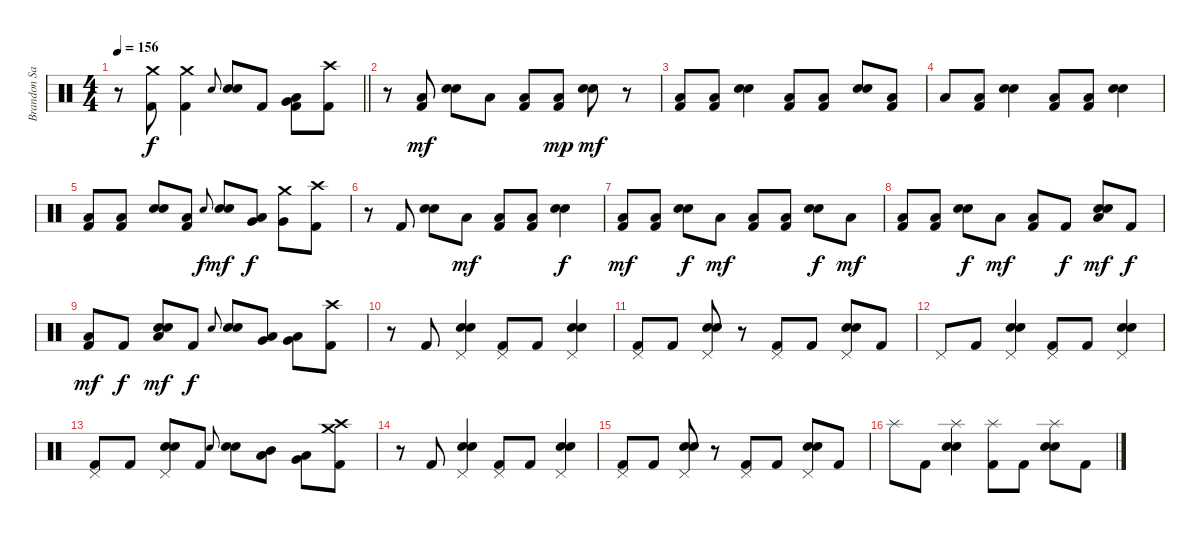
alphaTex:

\track ("Brandon Saller" "Brandon Sa") {instrument percussion}
\staff {score}
\articulation defaults
\ts (4 4)
\tempo 156
\clef neutral
\barLineRight lightlight
\ks c
r.8{dy f} ("Crash medium (hit)" "Kick (hit) 2").8 ("Crash medium (hit)" "Kick (hit) 2").4 "Electric Snare (hit)".8{gr onbeat} ("Snare (hit) 2" "Electric Snare (hit)").8 "Kick (hit) 2".8 ("Low Tom (hit)" "Very Low Tom (hit)" "Kick (hit) 2").8 ("Crash high (hit)" "Kick (hit) 2").8 |
\section ("" "")
r.8 ("Low Floor Tom (hit)" "Kick (hit) 2").8{dy mf} ("Snare (hit) 2" "Electric Snare (hit)").8 "Low Floor Tom (hit)".8 ("Low Floor Tom (hit)" "Kick (hit) 2").8 ("Low Floor Tom (hit)" "Kick (hit) 2").8{dy mp} ("Snare (hit) 2" "Electric Snare (hit)").8{dy mf} r.8 |
("Low Floor Tom (hit)" "Kick (hit) 2").8 ("Low Floor Tom (hit)" "Kick (hit) 2").8 ("Snare (hit) 2" "Electric Snare (hit)").4 ("Low Floor Tom (hit)" "Kick (hit) 2").8 ("Low Floor Tom (hit)" "Kick (hit) 2").8 ("Snare (hit) 2" "Electric Snare (hit)").8 ("Low Floor Tom (hit)" "Kick (hit) 2").8 |
"Low Floor Tom (hit)".8 ("Low Floor Tom (hit)" "Kick (hit) 2").8 ("Snare (hit) 2" "Electric Snare (hit)").4 ("Low Floor Tom (hit)" "Kick (hit) 2").8 ("Low Floor Tom (hit)" "Kick (hit) 2").8 ("Snare (hit) 2" "Electric Snare (hit)").4 |
("Low Floor Tom (hit)" "Kick (hit) 2").8 ("Low Floor Tom (hit)" "Kick (hit) 2").8 ("Snare (hit) 2" "Electric Snare (hit)").8 ("Low Floor Tom (hit)" "Kick (hit) 2").8 "Electric Snare (hit)".8{gr onbeat dy f} ("Snare (hit) 2" "Electric Snare (hit)").8{dy mf} ("Very Low Tom (hit)" "Low Tom (hit)").8{dy f} ("Crash medium (hit)" "Very Low Tom (hit)").8 ("Crash high (hit)" "Kick (hit) 2").8 |
r.8 "Kick (hit) 2".8 ("Snare (hit) 2" "Electric Snare (hit)").8 "Low Floor Tom (hit)".8{dy mf} ("Low Floor Tom (hit)" "Kick (hit) 2").8 ("Low Floor Tom (hit)" "Kick (hit) 2").8 ("Snare (hit) 2" "Electric Snare (hit)").4{dy f} |
("Low Floor Tom (hit)" "Kick (hit) 2").8{dy mf} ("Low Floor Tom (hit)" "Kick (hit) 2").8 ("Snare (hit) 2" "Electric Snare (hit)").8{dy f} "Low Floor Tom (hit)".8{dy mf} ("Low Floor Tom (hit)" "Kick (hit) 2").8 ("Low Floor Tom (hit)" "Kick (hit) 2").8 ("Snare (hit) 2" "Electric Snare (hit)").8{dy f} "Low Floor Tom (hit)".8{dy mf} |
("Low Floor Tom (hit)" "Kick (hit) 2").8 ("Low Floor Tom (hit)" "Kick (hit) 2").8 ("Snare (hit) 2" "Electric Snare (hit)").8{dy f} "Low Floor Tom (hit)".8{dy mf} ("Low Floor Tom (hit)" "Kick (hit) 2").8 "Kick (hit) 2".8{dy f} ("Snare (hit) 2" "Electric Snare (hit)" "Low Floor Tom (hit)").8{dy mf} "Kick (hit) 2".8{dy f} |
("Low Floor Tom (hit)" "Kick (hit) 2").8{dy mf} "Kick (hit) 2".8{dy f} ("Snare (hit) 2" "Electric Snare (hit)" "Low Floor Tom (hit)").8{dy mf} "Kick (hit) 2".8{dy f} "Electric Snare (hit)".8{gr onbeat} ("Snare (hit) 2" "Electric Snare (hit)").8 ("Very Low Tom (hit)" "Low Tom (hit)").8 ("Very Low Tom (hit)" "Low Tom (hit)").8 ("Crash high (hit)" "Kick (hit) 2").8 |
r.8 "Kick (hit) 2".8 ("Pedal Hi-Hat (hit)" "Snare (hit) 2" "Electric Snare (hit)").4 ("Pedal Hi-Hat (hit)" "Kick (hit) 2").8 "Kick (hit) 2".8 ("Pedal Hi-Hat (hit)" "Snare (hit) 2" "Electric Snare (hit)").4 |
("Pedal Hi-Hat (hit)" "Kick (hit) 2").8 "Kick (hit) 2".8 ("Pedal Hi-Hat (hit)" "Snare (hit) 2" "Electric Snare (hit)").8 r.8 ("Pedal Hi-Hat (hit)" "Kick (hit) 2").8 "Kick (hit) 2".8 ("Pedal Hi-Hat (hit)" "Snare (hit) 2" "Electric Snare (hit)").8 "Kick (hit) 2".8 |
"Pedal Hi-Hat (hit)".8 "Kick (hit) 2".8 ("Pedal Hi-Hat (hit)" "Snare (hit) 2" "Electric Snare (hit)").4 ("Pedal Hi-Hat (hit)" "Kick (hit) 2").8 "Kick (hit) 2".8 ("Pedal Hi-Hat (hit)" "Snare (hit) 2" "Electric Snare (hit)").4 |
("Pedal Hi-Hat (hit)" "Kick (hit) 2").8 "Kick (hit) 2".8 ("Pedal Hi-Hat (hit)" "Snare (hit) 2" "Electric Snare (hit)").8 "Kick (hit) 2".8 "Electric Snare (hit)".8{gr onbeat} ("Snare (hit) 2" "Electric Snare (hit)").8 ("Mid Tom (hit)" "Low Tom (hit)").8 ("Low Tom (hit)" "Very Low Tom (hit)").8 ("Crash high (hit)" "Crash medium (hit)" "Kick (hit) 2").8 |
r.8 "Kick (hit) 2".8 ("Pedal Hi-Hat (hit)" "Snare (hit) 2" "Electric Snare (hit)").4 ("Pedal Hi-Hat (hit)" "Kick (hit) 2").8 "Kick (hit) 2".8 ("Pedal Hi-Hat (hit)" "Snare (hit) 2" "Electric Snare (hit)").4 |
("Pedal Hi-Hat (hit)" "Kick (hit) 2").8 "Kick (hit) 2".8 ("Pedal Hi-Hat (hit)" "Snare (hit) 2" "Electric Snare (hit)").8 r.8 ("Pedal Hi-Hat (hit)" "Kick (hit) 2").8 "Kick (hit) 2".8 ("Pedal Hi-Hat (hit)" "Snare (hit) 2" "Electric Snare (hit)").8 "Kick (hit) 2".8 |
"Splash (hit)".8 "Kick (hit) 2".8 ("Splash (hit)" "Snare (hit) 2" "Electric Snare (hit)").4 ("Splash (hit)" "Kick (hit) 2").8 "Kick (hit) 2".8 ("Splash (hit)" "Snare (hit) 2" "Electric Snare (hit)").8 "Kick (hit) 2".8
